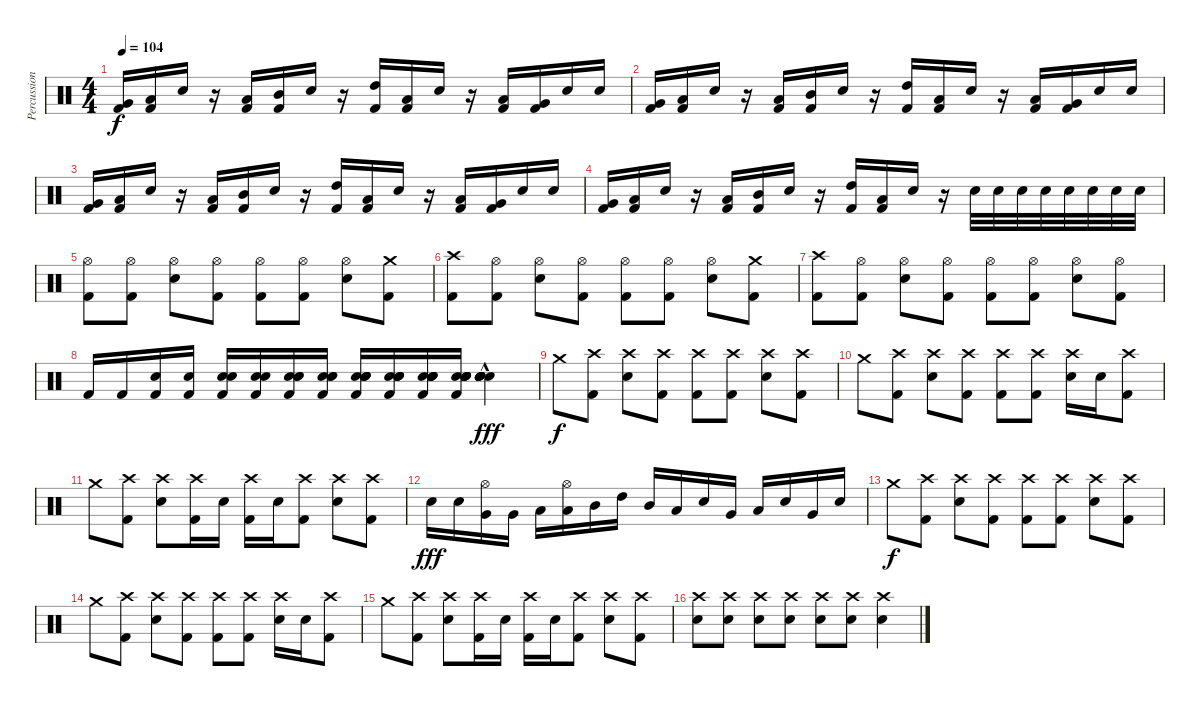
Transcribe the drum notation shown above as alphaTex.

\track ("Percussion" "Percussion") {instrument percussion}
\staff {score}
\articulation defaults
\ts (4 4)
\tempo 104
\clef neutral
\ks c
("Very Low Tom (hit)" "Kick (hit) 2").16{dy f} ("Low Tom (hit)" "Kick (hit) 2").16 "Electric Snare (hit)".16 r.16 ("Low Tom (hit)" "Kick (hit) 2").16 ("Mid Tom (hit)" "Kick (hit) 2").16 "Electric Snare (hit)".16 r.16 ("High Tom (hit)" "Kick (hit) 2").16 ("Low Floor Tom (hit)" "Kick (hit) 2").16 "Electric Snare (hit)".16 r.16 ("Low Floor Tom (hit)" "Kick (hit) 2").16 ("Very Low Tom (hit)" "Kick (hit) 2").16 "Electric Snare (hit)".16 "Electric Snare (hit)".16 |
("Very Low Tom (hit)" "Kick (hit) 2").16 ("Low Tom (hit)" "Kick (hit) 2").16 "Electric Snare (hit)".16 r.16 ("Low Tom (hit)" "Kick (hit) 2").16 ("Mid Tom (hit)" "Kick (hit) 2").16 "Electric Snare (hit)".16 r.16 ("High Tom (hit)" "Kick (hit) 2").16 ("Low Floor Tom (hit)" "Kick (hit) 2").16 "Electric Snare (hit)".16 r.16 ("Low Floor Tom (hit)" "Kick (hit) 2").16 ("Very Low Tom (hit)" "Kick (hit) 2").16 "Electric Snare (hit)".16 "Electric Snare (hit)".16 |
("Very Low Tom (hit)" "Kick (hit) 2").16 ("Low Tom (hit)" "Kick (hit) 2").16 "Electric Snare (hit)".16 r.16 ("Low Tom (hit)" "Kick (hit) 2").16 ("Mid Tom (hit)" "Kick (hit) 2").16 "Electric Snare (hit)".16 r.16 ("High Tom (hit)" "Kick (hit) 2").16 ("Low Floor Tom (hit)" "Kick (hit) 2").16 "Electric Snare (hit)".16 r.16 ("Low Floor Tom (hit)" "Kick (hit) 2").16 ("Very Low Tom (hit)" "Kick (hit) 2").16 "Electric Snare (hit)".16 "Electric Snare (hit)".16 |
("Very Low Tom (hit)" "Kick (hit) 2").16 ("Low Tom (hit)" "Kick (hit) 2").16 "Electric Snare (hit)".16 r.16 ("Low Tom (hit)" "Kick (hit) 2").16 ("Mid Tom (hit)" "Kick (hit) 2").16 "Electric Snare (hit)".16 r.16 ("High Tom (hit)" "Kick (hit) 2").16 ("Low Floor Tom (hit)" "Kick (hit) 2").16 "Electric Snare (hit)".16 r.16 "Electric Snare (hit)".32 "Electric Snare (hit)".32 "Electric Snare (hit)".32 "Electric Snare (hit)".32 "Electric Snare (hit)".32 "Electric Snare (hit)".32 "Electric Snare (hit)".32 "Electric Snare (hit)".32 |
("Hi-Hat (open)" "Kick (hit) 2").8 ("Hi-Hat (open)" "Kick (hit) 2").8 ("Hi-Hat (open)" "Electric Snare (hit)").8 ("Hi-Hat (open)" "Kick (hit) 2").8 ("Hi-Hat (open)" "Kick (hit) 2").8 ("Hi-Hat (open)" "Kick (hit) 2").8 ("Hi-Hat (open)" "Electric Snare (hit)").8 ("Crash medium (hit)" "Kick (hit) 2").8 |
("Crash high (hit)" "Kick (hit) 2").8 ("Hi-Hat (open)" "Kick (hit) 2").8 ("Hi-Hat (open)" "Electric Snare (hit)").8 ("Hi-Hat (open)" "Kick (hit) 2").8 ("Hi-Hat (open)" "Kick (hit) 2").8 ("Hi-Hat (open)" "Kick (hit) 2").8 ("Hi-Hat (open)" "Electric Snare (hit)").8 ("Crash medium (hit)" "Kick (hit) 2").8 |
("Crash high (hit)" "Kick (hit) 2").8 ("Hi-Hat (open)" "Kick (hit) 2").8 ("Hi-Hat (open)" "Electric Snare (hit)").8 ("Hi-Hat (open)" "Kick (hit) 2").8 ("Hi-Hat (open)" "Kick (hit) 2").8 ("Hi-Hat (open)" "Kick (hit) 2").8 ("Hi-Hat (open)" "Electric Snare (hit)").8 ("Hi-Hat (open)" "Kick (hit) 2").8 |
"Kick (hit) 2".16 "Kick (hit) 2".16 ("Electric Snare (hit)" "Kick (hit) 2").16 ("Electric Snare (hit)" "Kick (hit) 2").16 ("Electric Snare (hit)" "Electric Snare (hit)" "Kick (hit) 2").16 ("Electric Snare (hit)" "Electric Snare (hit)" "Kick (hit) 2").16 ("Electric Snare (hit)" "Electric Snare (hit)" "Electric Snare (hit)" "Kick (hit) 2").16 ("Electric Snare (hit)" "Electric Snare (hit)" "Electric Snare (hit)" "Kick (hit) 2").16 ("Electric Snare (hit)" "Electric Snare (hit)" "Electric Snare (hit)" "Electric Snare (hit)" "Kick (hit) 2").16 ("Electric Snare (hit)" "Electric Snare (hit)" "Electric Snare (hit)" "Electric Snare (hit)" "Kick (hit) 2").16 ("Electric Snare (hit)" "Electric Snare (hit)" "Electric Snare (hit)" "Electric Snare (hit)" "Electric Snare (hit)" "Kick (hit) 2").16 ("Electric Snare (hit)" "Electric Snare (hit)" "Electric Snare (hit)" "Electric Snare (hit)" "Electric Snare (hit)" "Kick (hit) 2").16 ("Electric Snare (hit)"{hac} "Electric Snare (hit)"{hac} "Electric Snare (hit)"{hac} "Electric Snare (hit)"{hac} "Electric Snare (hit)"{hac} "Electric Snare (hit)"{hac}).4{dy fff} |
"Crash medium (hit)".8{dy f} ("Crash high (hit)" "Kick (hit) 2").8 ("Crash high (hit)" "Electric Snare (hit)").8 ("Crash high (hit)" "Kick (hit) 2").8 ("Crash high (hit)" "Kick (hit) 2").8 ("Crash high (hit)" "Kick (hit) 2").8 ("Crash high (hit)" "Electric Snare (hit)").8 ("Crash high (hit)" "Kick (hit) 2").8 |
"Crash medium (hit)".8 ("Crash high (hit)" "Kick (hit) 2").8 ("Crash high (hit)" "Electric Snare (hit)").8 ("Crash high (hit)" "Kick (hit) 2").8 ("Crash high (hit)" "Kick (hit) 2").8 ("Crash high (hit)" "Kick (hit) 2").8 ("Crash high (hit)" "Electric Snare (hit)").16 "Electric Snare (hit)".16 ("Crash high (hit)" "Kick (hit) 2").8 |
"Crash medium (hit)".8 ("Crash high (hit)" "Kick (hit) 2").8 ("Crash high (hit)" "Electric Snare (hit)").8 ("Crash high (hit)" "Kick (hit) 2").16 "Electric Snare (hit)".16 ("Crash high (hit)" "Kick (hit) 2").16 "Electric Snare (hit)".16 ("Crash high (hit)" "Kick (hit) 2").8 ("Crash high (hit)" "Electric Snare (hit)").8 ("Crash high (hit)" "Kick (hit) 2").8 |
"Electric Snare (hit)".16{dy fff} "Electric Snare (hit)".16 ("Hi-Hat (open)" "Very Low Tom (hit)").16 "Very Low Tom (hit)".16 "Low Tom (hit)".16 ("Hi-Hat (open)" "Low Tom (hit)").16 "Mid Tom (hit)".16 "High Tom (hit)".16 "Mid Tom (hit)".16 "Low Tom (hit)".16 "Electric Snare (hit)".16 "Very Low Tom (hit)".16 "Low Tom (hit)".16 "Electric Snare (hit)".16 "Very Low Tom (hit)".16 "Electric Snare (hit)".16 |
"Crash medium (hit)".8{dy f} ("Crash high (hit)" "Kick (hit) 2").8 ("Crash high (hit)" "Electric Snare (hit)").8 ("Crash high (hit)" "Kick (hit) 2").8 ("Crash high (hit)" "Kick (hit) 2").8 ("Crash high (hit)" "Kick (hit) 2").8 ("Crash high (hit)" "Electric Snare (hit)").8 ("Crash high (hit)" "Kick (hit) 2").8 |
"Crash medium (hit)".8 ("Crash high (hit)" "Kick (hit) 2").8 ("Crash high (hit)" "Electric Snare (hit)").8 ("Crash high (hit)" "Kick (hit) 2").8 ("Crash high (hit)" "Kick (hit) 2").8 ("Crash high (hit)" "Kick (hit) 2").8 ("Crash high (hit)" "Electric Snare (hit)").16 "Electric Snare (hit)".16 ("Crash high (hit)" "Kick (hit) 2").8 |
"Crash medium (hit)".8 ("Crash high (hit)" "Kick (hit) 2").8 ("Crash high (hit)" "Electric Snare (hit)").8 ("Crash high (hit)" "Kick (hit) 2").16 "Electric Snare (hit)".16 ("Crash high (hit)" "Kick (hit) 2").16 "Electric Snare (hit)".16 ("Crash high (hit)" "Kick (hit) 2").8 ("Crash high (hit)" "Electric Snare (hit)").8 ("Crash high (hit)" "Kick (hit) 2").8 |
("Crash high (hit)" "Electric Snare (hit)").8 ("Crash high (hit)" "Electric Snare (hit)").8 ("Crash high (hit)" "Electric Snare (hit)").8 ("Crash high (hit)" "Electric Snare (hit)").8 ("Crash high (hit)" "Electric Snare (hit)").8 ("Crash high (hit)" "Electric Snare (hit)").8 ("Crash high (hit)" "Electric Snare (hit)").4
